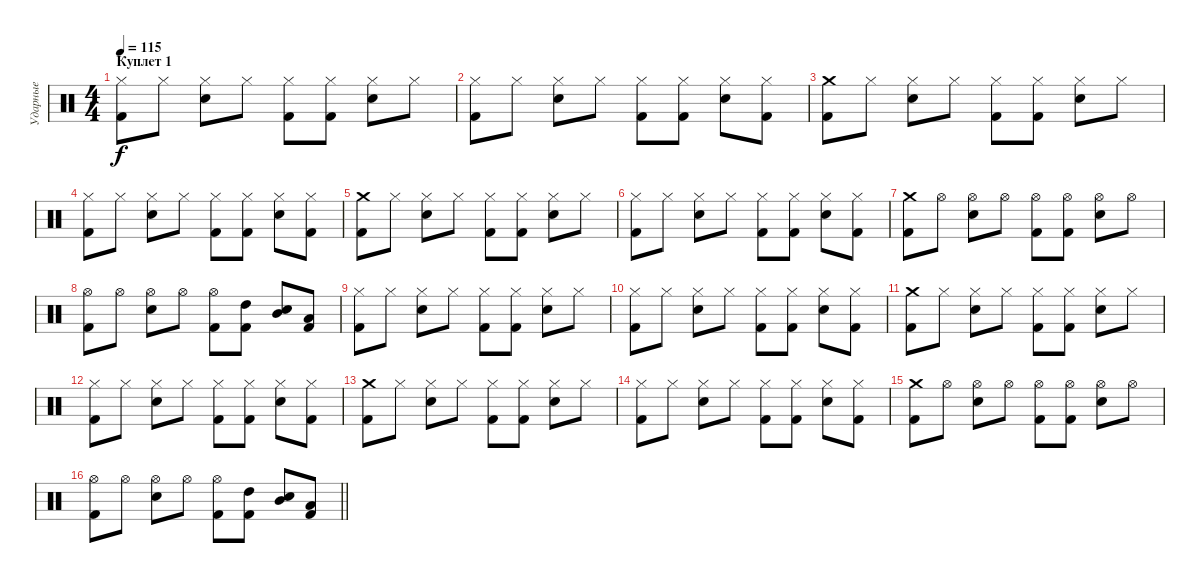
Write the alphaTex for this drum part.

\track ("Ударные" "Ударные") {instrument percussion}
\staff {score}
\articulation defaults
\ts (4 4)
\section ("" "Куплет 1")
\tempo 115
\clef neutral
\ks c
("Kick (hit) 2" "Hi-Hat (closed)").8{dy f} "Hi-Hat (closed)".8 ("Snare (hit) 2" "Hi-Hat (closed)").8 "Hi-Hat (closed)".8 ("Kick (hit) 2" "Hi-Hat (closed)").8 ("Kick (hit) 2" "Hi-Hat (closed)").8 ("Snare (hit) 2" "Hi-Hat (closed)").8 "Hi-Hat (closed)".8 |
("Kick (hit) 2" "Hi-Hat (closed)").8 "Hi-Hat (closed)".8 ("Snare (hit) 2" "Hi-Hat (closed)").8 "Hi-Hat (closed)".8 ("Kick (hit) 2" "Hi-Hat (closed)").8 ("Kick (hit) 2" "Hi-Hat (closed)").8 ("Snare (hit) 2" "Hi-Hat (closed)").8 ("Kick (hit) 2" "Hi-Hat (closed)").8 |
("Kick (hit) 2" "Crash medium (hit)").8 "Hi-Hat (closed)".8 ("Snare (hit) 2" "Hi-Hat (closed)").8 "Hi-Hat (closed)".8 ("Kick (hit) 2" "Hi-Hat (closed)").8 ("Kick (hit) 2" "Hi-Hat (closed)").8 ("Snare (hit) 2" "Hi-Hat (closed)").8 "Hi-Hat (closed)".8 |
("Kick (hit) 2" "Hi-Hat (closed)").8 "Hi-Hat (closed)".8 ("Snare (hit) 2" "Hi-Hat (closed)").8 "Hi-Hat (closed)".8 ("Kick (hit) 2" "Hi-Hat (closed)").8 ("Kick (hit) 2" "Hi-Hat (closed)").8 ("Snare (hit) 2" "Hi-Hat (closed)").8 ("Kick (hit) 2" "Hi-Hat (closed)").8 |
("Kick (hit) 2" "Crash medium (hit)").8 "Hi-Hat (closed)".8 ("Snare (hit) 2" "Hi-Hat (closed)").8 "Hi-Hat (closed)".8 ("Kick (hit) 2" "Hi-Hat (closed)").8 ("Kick (hit) 2" "Hi-Hat (closed)").8 ("Snare (hit) 2" "Hi-Hat (closed)").8 "Hi-Hat (closed)".8 |
("Kick (hit) 2" "Hi-Hat (closed)").8 "Hi-Hat (closed)".8 ("Snare (hit) 2" "Hi-Hat (closed)").8 "Hi-Hat (closed)".8 ("Kick (hit) 2" "Hi-Hat (closed)").8 ("Kick (hit) 2" "Hi-Hat (closed)").8 ("Snare (hit) 2" "Hi-Hat (closed)").8 ("Kick (hit) 2" "Hi-Hat (closed)").8 |
("Kick (hit) 2" "Crash medium (hit)").8 "Hi-Hat (open)".8 ("Snare (hit) 2" "Hi-Hat (open)").8 "Hi-Hat (open)".8 ("Kick (hit) 2" "Hi-Hat (open)").8 ("Kick (hit) 2" "Hi-Hat (open)").8 ("Snare (hit) 2" "Hi-Hat (open)").8 "Hi-Hat (open)".8 |
("Kick (hit) 2" "Hi-Hat (open)").8 "Hi-Hat (open)".8 ("Snare (hit) 2" "Hi-Hat (open)").8 "Hi-Hat (open)".8 ("Kick (hit) 2" "Hi-Hat (open)").8 ("Kick (hit) 2" "High Tom (hit)").8 ("Snare (hit) 2" "Mid Tom (hit)").8 ("Kick (hit) 2" "Low Tom (hit)").8 |
("Kick (hit) 2" "Hi-Hat (closed)").8 "Hi-Hat (closed)".8 ("Snare (hit) 2" "Hi-Hat (closed)").8 "Hi-Hat (closed)".8 ("Kick (hit) 2" "Hi-Hat (closed)").8 ("Kick (hit) 2" "Hi-Hat (closed)").8 ("Snare (hit) 2" "Hi-Hat (closed)").8 "Hi-Hat (closed)".8 |
("Kick (hit) 2" "Hi-Hat (closed)").8 "Hi-Hat (closed)".8 ("Snare (hit) 2" "Hi-Hat (closed)").8 "Hi-Hat (closed)".8 ("Kick (hit) 2" "Hi-Hat (closed)").8 ("Kick (hit) 2" "Hi-Hat (closed)").8 ("Snare (hit) 2" "Hi-Hat (closed)").8 ("Kick (hit) 2" "Hi-Hat (closed)").8 |
("Kick (hit) 2" "Crash medium (hit)").8 "Hi-Hat (closed)".8 ("Snare (hit) 2" "Hi-Hat (closed)").8 "Hi-Hat (closed)".8 ("Kick (hit) 2" "Hi-Hat (closed)").8 ("Kick (hit) 2" "Hi-Hat (closed)").8 ("Snare (hit) 2" "Hi-Hat (closed)").8 "Hi-Hat (closed)".8 |
("Kick (hit) 2" "Hi-Hat (closed)").8 "Hi-Hat (closed)".8 ("Snare (hit) 2" "Hi-Hat (closed)").8 "Hi-Hat (closed)".8 ("Kick (hit) 2" "Hi-Hat (closed)").8 ("Kick (hit) 2" "Hi-Hat (closed)").8 ("Snare (hit) 2" "Hi-Hat (closed)").8 ("Kick (hit) 2" "Hi-Hat (closed)").8 |
("Kick (hit) 2" "Crash medium (hit)").8 "Hi-Hat (closed)".8 ("Snare (hit) 2" "Hi-Hat (closed)").8 "Hi-Hat (closed)".8 ("Kick (hit) 2" "Hi-Hat (closed)").8 ("Kick (hit) 2" "Hi-Hat (closed)").8 ("Snare (hit) 2" "Hi-Hat (closed)").8 "Hi-Hat (closed)".8 |
("Kick (hit) 2" "Hi-Hat (closed)").8 "Hi-Hat (closed)".8 ("Snare (hit) 2" "Hi-Hat (closed)").8 "Hi-Hat (closed)".8 ("Kick (hit) 2" "Hi-Hat (closed)").8 ("Kick (hit) 2" "Hi-Hat (closed)").8 ("Snare (hit) 2" "Hi-Hat (closed)").8 ("Kick (hit) 2" "Hi-Hat (closed)").8 |
("Kick (hit) 2" "Crash medium (hit)").8 "Hi-Hat (open)".8 ("Snare (hit) 2" "Hi-Hat (open)").8 "Hi-Hat (open)".8 ("Kick (hit) 2" "Hi-Hat (open)").8 ("Kick (hit) 2" "Hi-Hat (open)").8 ("Snare (hit) 2" "Hi-Hat (open)").8 "Hi-Hat (open)".8 |
\barLineRight lightlight
("Kick (hit) 2" "Hi-Hat (open)").8 "Hi-Hat (open)".8 ("Snare (hit) 2" "Hi-Hat (open)").8 "Hi-Hat (open)".8 ("Kick (hit) 2" "Hi-Hat (open)").8 ("Kick (hit) 2" "High Tom (hit)").8 ("Snare (hit) 2" "Mid Tom (hit)").8 ("Kick (hit) 2" "Low Tom (hit)").8
